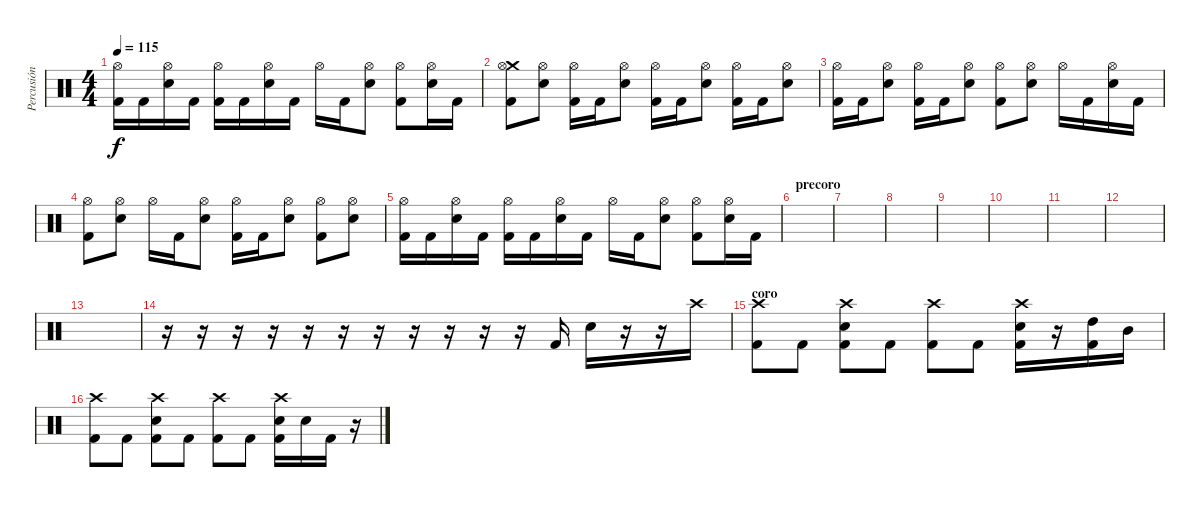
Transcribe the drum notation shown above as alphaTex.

\track ("Percusión" "Percusión") {instrument percussion}
\staff {score}
\articulation defaults
\ts (4 4)
\tempo 115
\clef neutral
\ks c
("Hi-Hat (open)" "Kick (hit) 2").16{dy f} "Kick (hit) 2".16 ("Hi-Hat (open)" "Electric Snare (hit)").16 "Kick (hit) 2".16 ("Hi-Hat (open)" "Kick (hit) 2").16 "Kick (hit) 2".16 ("Hi-Hat (open)" "Electric Snare (hit)").16 "Kick (hit) 2".16 "Hi-Hat (open)".16 "Kick (hit) 2".16 ("Hi-Hat (open)" "Electric Snare (hit)").8 ("Hi-Hat (open)" "Kick (hit) 2").8 ("Hi-Hat (open)" "Electric Snare (hit)").16 "Kick (hit) 2".16 |
("Crash medium (hit)" "Hi-Hat (open)" "Kick (hit) 2").8 ("Hi-Hat (open)" "Electric Snare (hit)").8 ("Hi-Hat (open)" "Kick (hit) 2").16 "Kick (hit) 2".16 ("Hi-Hat (open)" "Electric Snare (hit)").8 ("Hi-Hat (open)" "Kick (hit) 2").16 "Kick (hit) 2".16 ("Hi-Hat (open)" "Electric Snare (hit)").8 ("Hi-Hat (open)" "Kick (hit) 2").16 "Kick (hit) 2".16 ("Hi-Hat (open)" "Electric Snare (hit)").8 |
("Hi-Hat (open)" "Kick (hit) 2").16 "Kick (hit) 2".16 ("Hi-Hat (open)" "Electric Snare (hit)").8 ("Hi-Hat (open)" "Kick (hit) 2").16 "Kick (hit) 2".16 ("Hi-Hat (open)" "Electric Snare (hit)").8 ("Hi-Hat (open)" "Kick (hit) 2").8 ("Hi-Hat (open)" "Electric Snare (hit)").8 "Hi-Hat (open)".16 "Kick (hit) 2".16 ("Hi-Hat (open)" "Electric Snare (hit)").16 "Kick (hit) 2".16 |
("Hi-Hat (open)" "Kick (hit) 2").8 ("Hi-Hat (open)" "Electric Snare (hit)").8 "Hi-Hat (open)".16 "Kick (hit) 2".16 ("Hi-Hat (open)" "Electric Snare (hit)").8 ("Hi-Hat (open)" "Kick (hit) 2").16 "Kick (hit) 2".16 ("Hi-Hat (open)" "Electric Snare (hit)").8 ("Hi-Hat (open)" "Kick (hit) 2").8 ("Hi-Hat (open)" "Electric Snare (hit)").8 |
("Hi-Hat (open)" "Kick (hit) 2").16 "Kick (hit) 2".16 ("Hi-Hat (open)" "Electric Snare (hit)").16 "Kick (hit) 2".16 ("Hi-Hat (open)" "Kick (hit) 2").16 "Kick (hit) 2".16 ("Hi-Hat (open)" "Electric Snare (hit)").16 "Kick (hit) 2".16 "Hi-Hat (open)".16 "Kick (hit) 2".16 ("Hi-Hat (open)" "Electric Snare (hit)").8 ("Hi-Hat (open)" "Kick (hit) 2").8 ("Hi-Hat (open)" "Electric Snare (hit)").16 "Kick (hit) 2".16 |
\section ("" "precoro")
|
|
|
|
|
|
|
|
r.16 r.16 r.16 r.16 r.16 r.16 r.16 r.16 r.16 r.16 r.16 "Kick (hit) 2".16 "Electric Snare (hit)".16 r.16 r.16 "Crash high (hit)".16 |
\section ("" "coro")
("Crash high (hit)" "Kick (hit) 2").8 "Kick (hit) 2".8 ("Crash high (hit)" "Electric Snare (hit)" "Kick (hit) 2").8 "Kick (hit) 2".8 ("Crash high (hit)" "Kick (hit) 2").8 "Kick (hit) 2".8 ("Crash high (hit)" "Electric Snare (hit)" "Kick (hit) 2").16 r.16 ("High Tom (hit)" "Kick (hit) 2").16 "Mid Tom (hit)".16 |
("Crash high (hit)" "Kick (hit) 2").8 "Kick (hit) 2".8 ("Crash high (hit)" "Electric Snare (hit)" "Kick (hit) 2").8 "Kick (hit) 2".8 ("Crash high (hit)" "Kick (hit) 2").8 "Kick (hit) 2".8 ("Crash high (hit)" "Electric Snare (hit)" "Kick (hit) 2").16 "Electric Snare (hit)".16 "Kick (hit) 2".16 r.16
